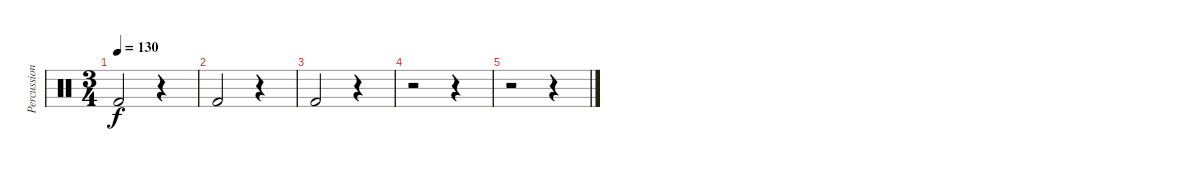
\track ("Percussions" "Percussion") {instrument percussion}
\staff {score}
\articulation defaults
\ts (3 4)
\tempo 130
\clef neutral
\ks c "Kick (hit) 2".2{dy f}
r.4 |
"Kick (hit) 2".2 r.4 |
"Kick (hit) 2".2 r.4 |
r.2 r.4 |
r.2 r.4
